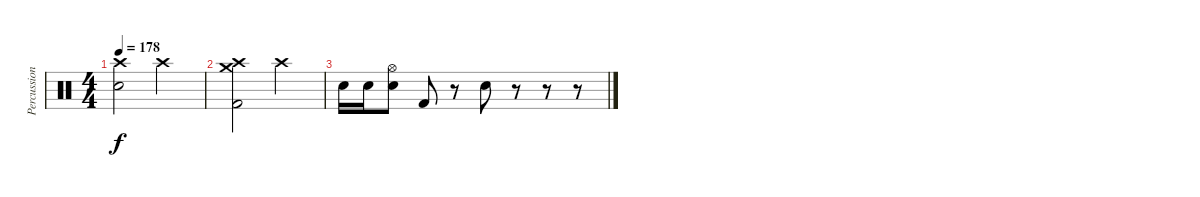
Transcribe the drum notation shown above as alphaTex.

\track ("Percussion" "Percussion") {instrument percussion}
\staff {score}
\articulation defaults
\ts (4 4)
\tempo 178
\clef neutral
\ks c
("Crash high (hit)" "Electric Snare (hit)").2{dy f} "Crash high (hit)".2 |
("Crash medium (hit)" "Crash high (hit)" "Kick (hit) 2").2 "Crash high (hit)".2 |
"Electric Snare (hit)".16 "Electric Snare (hit)".16 ("Hi-Hat (open)" "Electric Snare (hit)").8 "Kick (hit) 2".8 r.8 "Electric Snare (hit)".8 r.8 r.8 r.8
